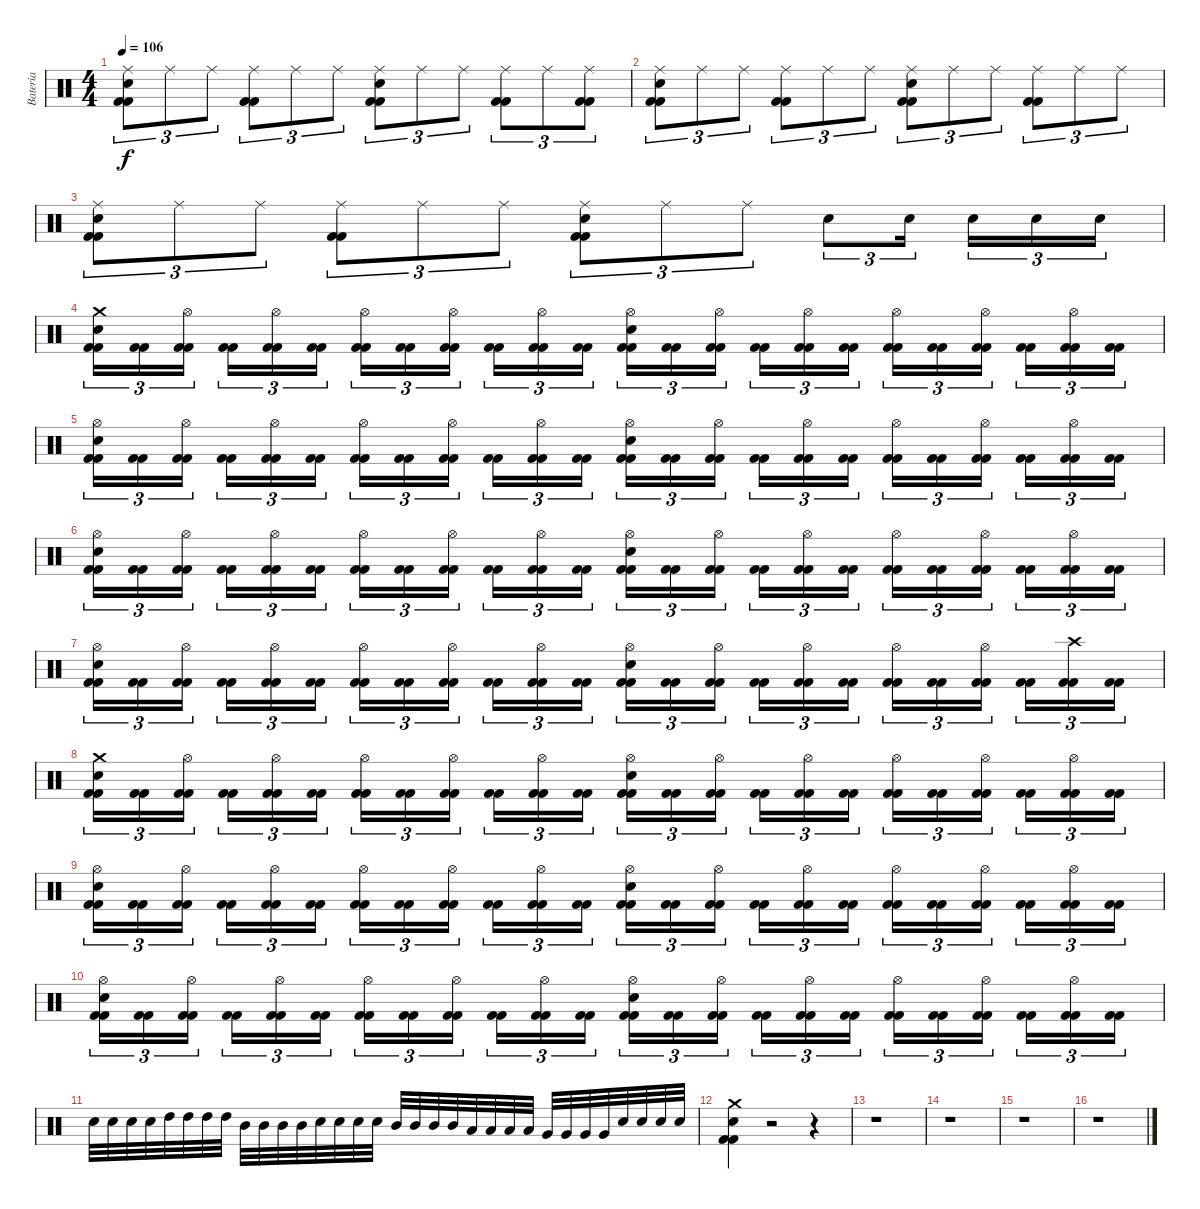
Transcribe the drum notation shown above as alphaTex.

\track ("Bateria" "Bateria") {instrument percussion}
\staff {score}
\articulation defaults
\ts (4 4)
\tempo 106
\clef neutral
\ks c
("Kick (hit) 2" "Kick (hit) 2" "Snare (hit) 2" "Ride (middle)").8{tu (3 2) dy f} "Ride (middle)".8{tu (3 2)} "Ride (middle)".8{tu (3 2)} ("Kick (hit) 2" "Kick (hit) 2" "Ride (middle)").8{tu (3 2)} "Ride (middle)".8{tu (3 2)} "Ride (middle)".8{tu (3 2)} ("Kick (hit) 2" "Kick (hit) 2" "Snare (hit) 2" "Ride (middle)").8{tu (3 2)} "Ride (middle)".8{tu (3 2)} "Ride (middle)".8{tu (3 2)} ("Kick (hit) 2" "Kick (hit) 2" "Ride (middle)").8{tu (3 2)} "Ride (middle)".8{tu (3 2)} ("Kick (hit) 2" "Kick (hit) 2" "Ride (middle)").8{tu (3 2)} |
("Kick (hit) 2" "Kick (hit) 2" "Snare (hit) 2" "Ride (middle)").8{tu (3 2)} "Ride (middle)".8{tu (3 2)} "Ride (middle)".8{tu (3 2)} ("Kick (hit) 2" "Kick (hit) 2" "Ride (middle)").8{tu (3 2)} "Ride (middle)".8{tu (3 2)} "Ride (middle)".8{tu (3 2)} ("Kick (hit) 2" "Kick (hit) 2" "Snare (hit) 2" "Ride (middle)").8{tu (3 2)} "Ride (middle)".8{tu (3 2)} "Ride (middle)".8{tu (3 2)} ("Kick (hit) 2" "Kick (hit) 2" "Ride (middle)").8{tu (3 2)} "Ride (middle)".8{tu (3 2)} "Ride (middle)".8{tu (3 2)} |
("Kick (hit) 2" "Kick (hit) 2" "Snare (hit) 2" "Ride (middle)").8{tu (3 2)} "Ride (middle)".8{tu (3 2)} "Ride (middle)".8{tu (3 2)} ("Kick (hit) 2" "Kick (hit) 2" "Ride (middle)").8{tu (3 2)} "Ride (middle)".8{tu (3 2)} "Ride (middle)".8{tu (3 2)} ("Kick (hit) 2" "Kick (hit) 2" "Snare (hit) 2" "Ride (middle)").8{tu (3 2)} "Ride (middle)".8{tu (3 2)} "Ride (middle)".8{tu (3 2)} "Snare (hit) 2".8{tu (3 2)} "Snare (hit) 2".16{tu (3 2)} "Snare (hit) 2".16{tu (3 2)} "Snare (hit) 2".16{tu (3 2)} "Snare (hit) 2".16{tu (3 2)} |
("Kick (hit) 2" "Kick (hit) 2" "Snare (hit) 2" "Crash medium (hit)").16{tu (3 2)} ("Kick (hit) 2" "Kick (hit) 2").16{tu (3 2)} ("Kick (hit) 2" "Kick (hit) 2" "Hi-Hat (open)").16{tu (3 2)} ("Kick (hit) 2" "Kick (hit) 2").16{tu (3 2)} ("Kick (hit) 2" "Kick (hit) 2" "Hi-Hat (open)").16{tu (3 2)} ("Kick (hit) 2" "Kick (hit) 2").16{tu (3 2)} ("Kick (hit) 2" "Kick (hit) 2" "Hi-Hat (open)").16{tu (3 2)} ("Kick (hit) 2" "Kick (hit) 2").16{tu (3 2)} ("Kick (hit) 2" "Kick (hit) 2" "Hi-Hat (open)").16{tu (3 2)} ("Kick (hit) 2" "Kick (hit) 2").16{tu (3 2)} ("Kick (hit) 2" "Kick (hit) 2" "Hi-Hat (open)").16{tu (3 2)} ("Kick (hit) 2" "Kick (hit) 2").16{tu (3 2)} ("Kick (hit) 2" "Kick (hit) 2" "Snare (hit) 2" "Hi-Hat (open)").16{tu (3 2)} ("Kick (hit) 2" "Kick (hit) 2").16{tu (3 2)} ("Kick (hit) 2" "Kick (hit) 2" "Hi-Hat (open)").16{tu (3 2)} ("Kick (hit) 2" "Kick (hit) 2").16{tu (3 2)} ("Kick (hit) 2" "Kick (hit) 2" "Hi-Hat (open)").16{tu (3 2)} ("Kick (hit) 2" "Kick (hit) 2").16{tu (3 2)} ("Kick (hit) 2" "Kick (hit) 2" "Hi-Hat (open)").16{tu (3 2)} ("Kick (hit) 2" "Kick (hit) 2").16{tu (3 2)} ("Kick (hit) 2" "Kick (hit) 2" "Hi-Hat (open)").16{tu (3 2)} ("Kick (hit) 2" "Kick (hit) 2").16{tu (3 2)} ("Kick (hit) 2" "Kick (hit) 2" "Hi-Hat (open)").16{tu (3 2)} ("Kick (hit) 2" "Kick (hit) 2").16{tu (3 2)} |
("Kick (hit) 2" "Kick (hit) 2" "Snare (hit) 2" "Hi-Hat (open)").16{tu (3 2)} ("Kick (hit) 2" "Kick (hit) 2").16{tu (3 2)} ("Kick (hit) 2" "Kick (hit) 2" "Hi-Hat (open)").16{tu (3 2)} ("Kick (hit) 2" "Kick (hit) 2").16{tu (3 2)} ("Kick (hit) 2" "Kick (hit) 2" "Hi-Hat (open)").16{tu (3 2)} ("Kick (hit) 2" "Kick (hit) 2").16{tu (3 2)} ("Kick (hit) 2" "Kick (hit) 2" "Hi-Hat (open)").16{tu (3 2)} ("Kick (hit) 2" "Kick (hit) 2").16{tu (3 2)} ("Kick (hit) 2" "Kick (hit) 2" "Hi-Hat (open)").16{tu (3 2)} ("Kick (hit) 2" "Kick (hit) 2").16{tu (3 2)} ("Kick (hit) 2" "Kick (hit) 2" "Hi-Hat (open)").16{tu (3 2)} ("Kick (hit) 2" "Kick (hit) 2").16{tu (3 2)} ("Kick (hit) 2" "Kick (hit) 2" "Snare (hit) 2" "Hi-Hat (open)").16{tu (3 2)} ("Kick (hit) 2" "Kick (hit) 2").16{tu (3 2)} ("Kick (hit) 2" "Kick (hit) 2" "Hi-Hat (open)").16{tu (3 2)} ("Kick (hit) 2" "Kick (hit) 2").16{tu (3 2)} ("Kick (hit) 2" "Kick (hit) 2" "Hi-Hat (open)").16{tu (3 2)} ("Kick (hit) 2" "Kick (hit) 2").16{tu (3 2)} ("Kick (hit) 2" "Kick (hit) 2" "Hi-Hat (open)").16{tu (3 2)} ("Kick (hit) 2" "Kick (hit) 2").16{tu (3 2)} ("Kick (hit) 2" "Kick (hit) 2" "Hi-Hat (open)").16{tu (3 2)} ("Kick (hit) 2" "Kick (hit) 2").16{tu (3 2)} ("Kick (hit) 2" "Kick (hit) 2" "Hi-Hat (open)").16{tu (3 2)} ("Kick (hit) 2" "Kick (hit) 2").16{tu (3 2)} |
("Kick (hit) 2" "Kick (hit) 2" "Snare (hit) 2" "Hi-Hat (open)").16{tu (3 2)} ("Kick (hit) 2" "Kick (hit) 2").16{tu (3 2)} ("Kick (hit) 2" "Kick (hit) 2" "Hi-Hat (open)").16{tu (3 2)} ("Kick (hit) 2" "Kick (hit) 2").16{tu (3 2)} ("Kick (hit) 2" "Kick (hit) 2" "Hi-Hat (open)").16{tu (3 2)} ("Kick (hit) 2" "Kick (hit) 2").16{tu (3 2)} ("Kick (hit) 2" "Kick (hit) 2" "Hi-Hat (open)").16{tu (3 2)} ("Kick (hit) 2" "Kick (hit) 2").16{tu (3 2)} ("Kick (hit) 2" "Kick (hit) 2" "Hi-Hat (open)").16{tu (3 2)} ("Kick (hit) 2" "Kick (hit) 2").16{tu (3 2)} ("Kick (hit) 2" "Kick (hit) 2" "Hi-Hat (open)").16{tu (3 2)} ("Kick (hit) 2" "Kick (hit) 2").16{tu (3 2)} ("Kick (hit) 2" "Kick (hit) 2" "Snare (hit) 2" "Hi-Hat (open)").16{tu (3 2)} ("Kick (hit) 2" "Kick (hit) 2").16{tu (3 2)} ("Kick (hit) 2" "Kick (hit) 2" "Hi-Hat (open)").16{tu (3 2)} ("Kick (hit) 2" "Kick (hit) 2").16{tu (3 2)} ("Kick (hit) 2" "Kick (hit) 2" "Hi-Hat (open)").16{tu (3 2)} ("Kick (hit) 2" "Kick (hit) 2").16{tu (3 2)} ("Kick (hit) 2" "Kick (hit) 2" "Hi-Hat (open)").16{tu (3 2)} ("Kick (hit) 2" "Kick (hit) 2").16{tu (3 2)} ("Kick (hit) 2" "Kick (hit) 2" "Hi-Hat (open)").16{tu (3 2)} ("Kick (hit) 2" "Kick (hit) 2").16{tu (3 2)} ("Kick (hit) 2" "Kick (hit) 2" "Hi-Hat (open)").16{tu (3 2)} ("Kick (hit) 2" "Kick (hit) 2").16{tu (3 2)} |
("Kick (hit) 2" "Kick (hit) 2" "Snare (hit) 2" "Hi-Hat (open)").16{tu (3 2)} ("Kick (hit) 2" "Kick (hit) 2").16{tu (3 2)} ("Kick (hit) 2" "Kick (hit) 2" "Hi-Hat (open)").16{tu (3 2)} ("Kick (hit) 2" "Kick (hit) 2").16{tu (3 2)} ("Kick (hit) 2" "Kick (hit) 2" "Hi-Hat (open)").16{tu (3 2)} ("Kick (hit) 2" "Kick (hit) 2").16{tu (3 2)} ("Kick (hit) 2" "Kick (hit) 2" "Hi-Hat (open)").16{tu (3 2)} ("Kick (hit) 2" "Kick (hit) 2").16{tu (3 2)} ("Kick (hit) 2" "Kick (hit) 2" "Hi-Hat (open)").16{tu (3 2)} ("Kick (hit) 2" "Kick (hit) 2").16{tu (3 2)} ("Kick (hit) 2" "Kick (hit) 2" "Hi-Hat (open)").16{tu (3 2)} ("Kick (hit) 2" "Kick (hit) 2").16{tu (3 2)} ("Kick (hit) 2" "Kick (hit) 2" "Snare (hit) 2" "Hi-Hat (open)").16{tu (3 2)} ("Kick (hit) 2" "Kick (hit) 2").16{tu (3 2)} ("Kick (hit) 2" "Kick (hit) 2" "Hi-Hat (open)").16{tu (3 2)} ("Kick (hit) 2" "Kick (hit) 2").16{tu (3 2)} ("Kick (hit) 2" "Kick (hit) 2" "Hi-Hat (open)").16{tu (3 2)} ("Kick (hit) 2" "Kick (hit) 2").16{tu (3 2)} ("Kick (hit) 2" "Kick (hit) 2" "Hi-Hat (open)").16{tu (3 2)} ("Kick (hit) 2" "Kick (hit) 2").16{tu (3 2)} ("Kick (hit) 2" "Kick (hit) 2" "Hi-Hat (open)").16{tu (3 2)} ("Kick (hit) 2" "Kick (hit) 2").16{tu (3 2)} ("Kick (hit) 2" "Kick (hit) 2" "Crash high (hit)").16{tu (3 2)} ("Kick (hit) 2" "Kick (hit) 2").16{tu (3 2)} |
("Kick (hit) 2" "Kick (hit) 2" "Snare (hit) 2" "Crash medium (hit)").16{tu (3 2)} ("Kick (hit) 2" "Kick (hit) 2").16{tu (3 2)} ("Kick (hit) 2" "Kick (hit) 2" "Hi-Hat (open)").16{tu (3 2)} ("Kick (hit) 2" "Kick (hit) 2").16{tu (3 2)} ("Kick (hit) 2" "Kick (hit) 2" "Hi-Hat (open)").16{tu (3 2)} ("Kick (hit) 2" "Kick (hit) 2").16{tu (3 2)} ("Kick (hit) 2" "Kick (hit) 2" "Hi-Hat (open)").16{tu (3 2)} ("Kick (hit) 2" "Kick (hit) 2").16{tu (3 2)} ("Kick (hit) 2" "Kick (hit) 2" "Hi-Hat (open)").16{tu (3 2)} ("Kick (hit) 2" "Kick (hit) 2").16{tu (3 2)} ("Kick (hit) 2" "Kick (hit) 2" "Hi-Hat (open)").16{tu (3 2)} ("Kick (hit) 2" "Kick (hit) 2").16{tu (3 2)} ("Kick (hit) 2" "Kick (hit) 2" "Snare (hit) 2" "Hi-Hat (open)").16{tu (3 2)} ("Kick (hit) 2" "Kick (hit) 2").16{tu (3 2)} ("Kick (hit) 2" "Kick (hit) 2" "Hi-Hat (open)").16{tu (3 2)} ("Kick (hit) 2" "Kick (hit) 2").16{tu (3 2)} ("Kick (hit) 2" "Kick (hit) 2" "Hi-Hat (open)").16{tu (3 2)} ("Kick (hit) 2" "Kick (hit) 2").16{tu (3 2)} ("Kick (hit) 2" "Kick (hit) 2" "Hi-Hat (open)").16{tu (3 2)} ("Kick (hit) 2" "Kick (hit) 2").16{tu (3 2)} ("Kick (hit) 2" "Kick (hit) 2" "Hi-Hat (open)").16{tu (3 2)} ("Kick (hit) 2" "Kick (hit) 2").16{tu (3 2)} ("Kick (hit) 2" "Kick (hit) 2" "Hi-Hat (open)").16{tu (3 2)} ("Kick (hit) 2" "Kick (hit) 2").16{tu (3 2)} |
("Kick (hit) 2" "Kick (hit) 2" "Snare (hit) 2" "Hi-Hat (open)").16{tu (3 2)} ("Kick (hit) 2" "Kick (hit) 2").16{tu (3 2)} ("Kick (hit) 2" "Kick (hit) 2" "Hi-Hat (open)").16{tu (3 2)} ("Kick (hit) 2" "Kick (hit) 2").16{tu (3 2)} ("Kick (hit) 2" "Kick (hit) 2" "Hi-Hat (open)").16{tu (3 2)} ("Kick (hit) 2" "Kick (hit) 2").16{tu (3 2)} ("Kick (hit) 2" "Kick (hit) 2" "Hi-Hat (open)").16{tu (3 2)} ("Kick (hit) 2" "Kick (hit) 2").16{tu (3 2)} ("Kick (hit) 2" "Kick (hit) 2" "Hi-Hat (open)").16{tu (3 2)} ("Kick (hit) 2" "Kick (hit) 2").16{tu (3 2)} ("Kick (hit) 2" "Kick (hit) 2" "Hi-Hat (open)").16{tu (3 2)} ("Kick (hit) 2" "Kick (hit) 2").16{tu (3 2)} ("Kick (hit) 2" "Kick (hit) 2" "Snare (hit) 2" "Hi-Hat (open)").16{tu (3 2)} ("Kick (hit) 2" "Kick (hit) 2").16{tu (3 2)} ("Kick (hit) 2" "Kick (hit) 2" "Hi-Hat (open)").16{tu (3 2)} ("Kick (hit) 2" "Kick (hit) 2").16{tu (3 2)} ("Kick (hit) 2" "Kick (hit) 2" "Hi-Hat (open)").16{tu (3 2)} ("Kick (hit) 2" "Kick (hit) 2").16{tu (3 2)} ("Kick (hit) 2" "Kick (hit) 2" "Hi-Hat (open)").16{tu (3 2)} ("Kick (hit) 2" "Kick (hit) 2").16{tu (3 2)} ("Kick (hit) 2" "Kick (hit) 2" "Hi-Hat (open)").16{tu (3 2)} ("Kick (hit) 2" "Kick (hit) 2").16{tu (3 2)} ("Kick (hit) 2" "Kick (hit) 2" "Hi-Hat (open)").16{tu (3 2)} ("Kick (hit) 2" "Kick (hit) 2").16{tu (3 2)} |
("Kick (hit) 2" "Kick (hit) 2" "Snare (hit) 2" "Hi-Hat (open)").16{tu (3 2)} ("Kick (hit) 2" "Kick (hit) 2").16{tu (3 2)} ("Kick (hit) 2" "Kick (hit) 2" "Hi-Hat (open)").16{tu (3 2)} ("Kick (hit) 2" "Kick (hit) 2").16{tu (3 2)} ("Kick (hit) 2" "Kick (hit) 2" "Hi-Hat (open)").16{tu (3 2)} ("Kick (hit) 2" "Kick (hit) 2").16{tu (3 2)} ("Kick (hit) 2" "Kick (hit) 2" "Hi-Hat (open)").16{tu (3 2)} ("Kick (hit) 2" "Kick (hit) 2").16{tu (3 2)} ("Kick (hit) 2" "Kick (hit) 2" "Hi-Hat (open)").16{tu (3 2)} ("Kick (hit) 2" "Kick (hit) 2").16{tu (3 2)} ("Kick (hit) 2" "Kick (hit) 2" "Hi-Hat (open)").16{tu (3 2)} ("Kick (hit) 2" "Kick (hit) 2").16{tu (3 2)} ("Kick (hit) 2" "Kick (hit) 2" "Snare (hit) 2" "Hi-Hat (open)").16{tu (3 2)} ("Kick (hit) 2" "Kick (hit) 2").16{tu (3 2)} ("Kick (hit) 2" "Kick (hit) 2" "Hi-Hat (open)").16{tu (3 2)} ("Kick (hit) 2" "Kick (hit) 2").16{tu (3 2)} ("Kick (hit) 2" "Kick (hit) 2" "Hi-Hat (open)").16{tu (3 2)} ("Kick (hit) 2" "Kick (hit) 2").16{tu (3 2)} ("Kick (hit) 2" "Kick (hit) 2" "Hi-Hat (open)").16{tu (3 2)} ("Kick (hit) 2" "Kick (hit) 2").16{tu (3 2)} ("Kick (hit) 2" "Kick (hit) 2" "Hi-Hat (open)").16{tu (3 2)} ("Kick (hit) 2" "Kick (hit) 2").16{tu (3 2)} ("Kick (hit) 2" "Kick (hit) 2" "Hi-Hat (open)").16{tu (3 2)} ("Kick (hit) 2" "Kick (hit) 2").16{tu (3 2)} |
"Snare (hit) 2".32 "Snare (hit) 2".32 "Snare (hit) 2".32 "Snare (hit) 2".32 "High Tom (hit)".32 "High Tom (hit)".32 "High Tom (hit)".32 "High Tom (hit)".32 "Mid Tom (hit)".32 "Mid Tom (hit)".32 "Mid Tom (hit)".32 "Mid Tom (hit)".32 "Snare (hit) 2".32 "Snare (hit) 2".32 "Snare (hit) 2".32 "Snare (hit) 2".32 "Mid Tom (hit)".32 "Mid Tom (hit)".32 "Mid Tom (hit)".32 "Mid Tom (hit)".32 "Low Tom (hit)".32 "Low Tom (hit)".32 "Low Tom (hit)".32 "Low Tom (hit)".32 "Very Low Tom (hit)".32 "Very Low Tom (hit)".32 "Very Low Tom (hit)".32 "Very Low Tom (hit)".32 "Snare (hit) 2".32 "Snare (hit) 2".32 "Snare (hit) 2".32 "Snare (hit) 2".32 |
("Kick (hit) 2" "Kick (hit) 2" "Snare (hit) 2" "Crash medium (hit)").4 r.2 r.4 |
r.1 |
r.1 |
r.1 |
r.1
